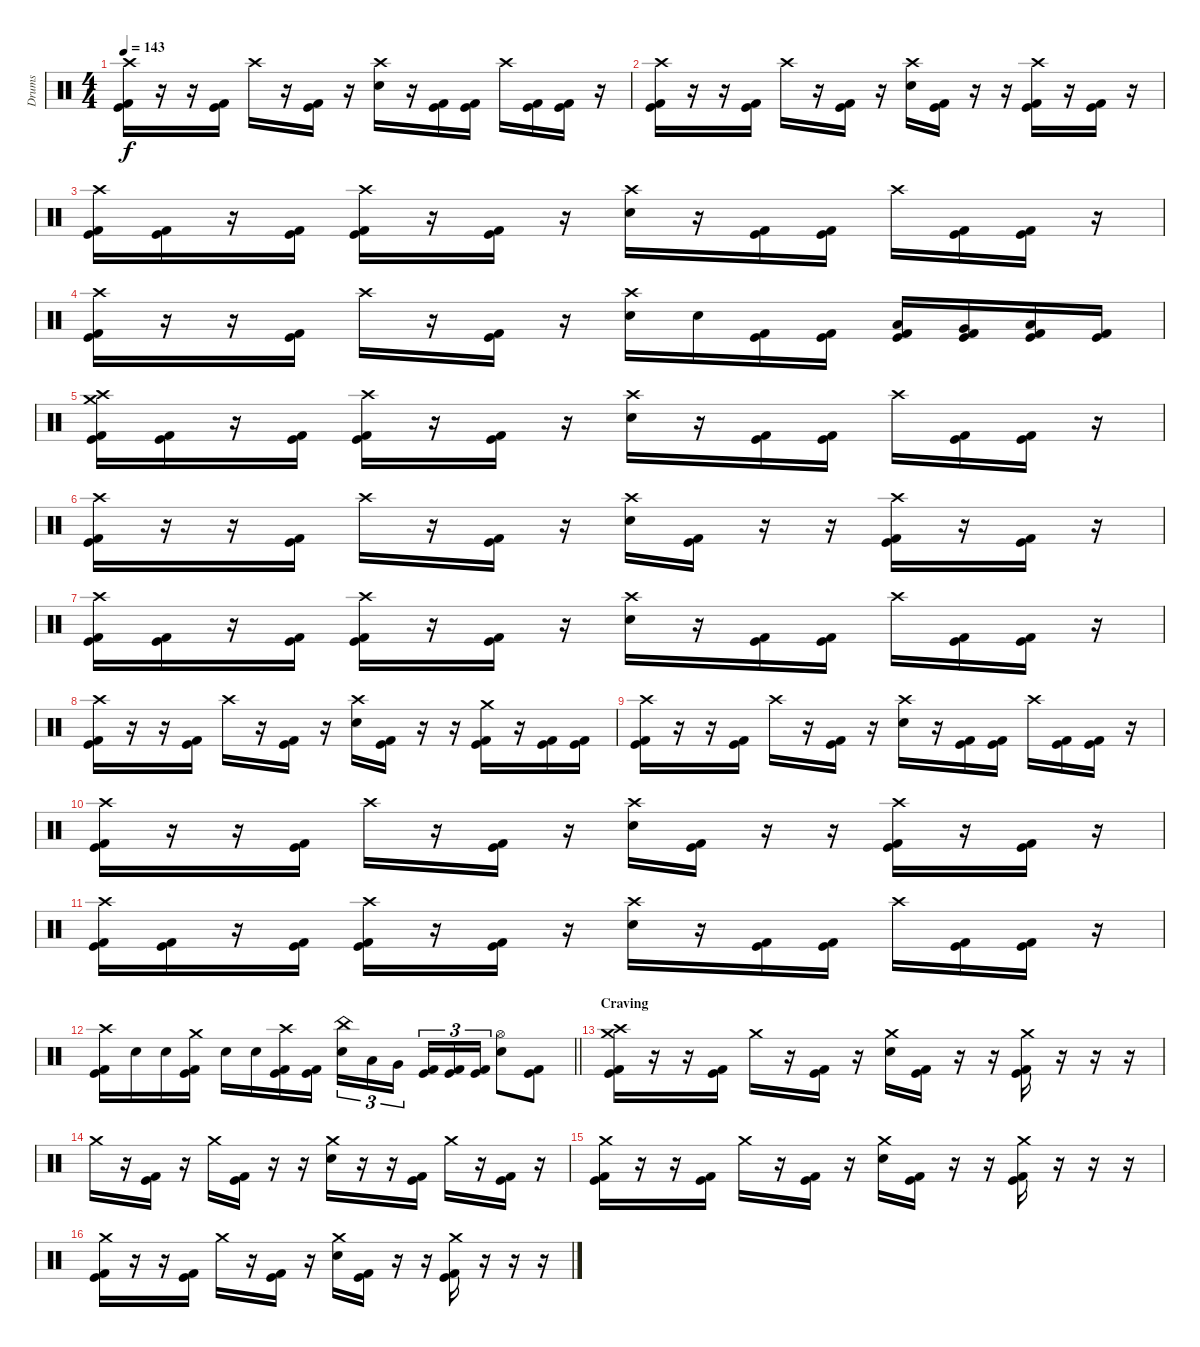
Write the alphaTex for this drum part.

\track ("Drums" "Drums") {instrument percussion}
\staff {score}
\articulation defaults
\ts (4 4)
\tempo 143
\clef neutral
\ks c
("Crash high (hit)" "Kick (hit)" "Kick (hit) 2").16{dy f} r.16 r.16 ("Kick (hit)" "Kick (hit) 2").16 "Crash high (hit)".16 r.16 ("Kick (hit)" "Kick (hit) 2").16 r.16 ("Crash high (hit)" "Electric Snare (hit)").16 r.16 ("Kick (hit)" "Kick (hit) 2").16 ("Kick (hit)" "Kick (hit) 2").16 "Crash high (hit)".16 ("Kick (hit)" "Kick (hit) 2").16 ("Kick (hit)" "Kick (hit) 2").16 r.16 |
("Crash high (hit)" "Kick (hit)" "Kick (hit) 2").16 r.16 r.16 ("Kick (hit)" "Kick (hit) 2").16 "Crash high (hit)".16 r.16 ("Kick (hit)" "Kick (hit) 2").16 r.16 ("Crash high (hit)" "Electric Snare (hit)").16 ("Kick (hit)" "Kick (hit) 2").16 r.16 r.16 ("Crash high (hit)" "Kick (hit)" "Kick (hit) 2").16 r.16 ("Kick (hit)" "Kick (hit) 2").16 r.16 |
("Crash high (hit)" "Kick (hit)" "Kick (hit) 2").16 ("Kick (hit)" "Kick (hit) 2").16 r.16 ("Kick (hit)" "Kick (hit) 2").16 ("Crash high (hit)" "Kick (hit)" "Kick (hit) 2").16 r.16 ("Kick (hit)" "Kick (hit) 2").16 r.16 ("Crash high (hit)" "Electric Snare (hit)").16 r.16 ("Kick (hit)" "Kick (hit) 2").16 ("Kick (hit)" "Kick (hit) 2").16 "Crash high (hit)".16 ("Kick (hit)" "Kick (hit) 2").16 ("Kick (hit)" "Kick (hit) 2").16 r.16 |
("Crash high (hit)" "Kick (hit)" "Kick (hit) 2").16 r.16 r.16 ("Kick (hit)" "Kick (hit) 2").16 "Crash high (hit)".16 r.16 ("Kick (hit)" "Kick (hit) 2").16 r.16 ("Crash high (hit)" "Electric Snare (hit)").16 "Electric Snare (hit)".16 ("Kick (hit)" "Kick (hit) 2").16 ("Kick (hit)" "Kick (hit) 2").16 ("Low Tom (hit)" "Kick (hit)" "Kick (hit) 2").16 ("Very Low Tom (hit)" "Kick (hit)" "Kick (hit) 2").16 ("Low Floor Tom (hit)" "Kick (hit)" "Kick (hit) 2").16 ("Kick (hit)" "Kick (hit) 2").16 |
("Crash medium (hit)" "Crash high (hit)" "Kick (hit)" "Kick (hit) 2").16 ("Kick (hit)" "Kick (hit) 2").16 r.16 ("Kick (hit)" "Kick (hit) 2").16 ("Crash high (hit)" "Kick (hit)" "Kick (hit) 2").16 r.16 ("Kick (hit)" "Kick (hit) 2").16 r.16 ("Crash high (hit)" "Electric Snare (hit)").16 r.16 ("Kick (hit)" "Kick (hit) 2").16 ("Kick (hit)" "Kick (hit) 2").16 "Crash high (hit)".16 ("Kick (hit)" "Kick (hit) 2").16 ("Kick (hit)" "Kick (hit) 2").16 r.16 |
("Crash high (hit)" "Kick (hit)" "Kick (hit) 2").16 r.16 r.16 ("Kick (hit)" "Kick (hit) 2").16 "Crash high (hit)".16 r.16 ("Kick (hit)" "Kick (hit) 2").16 r.16 ("Crash high (hit)" "Electric Snare (hit)").16 ("Kick (hit)" "Kick (hit) 2").16 r.16 r.16 ("Crash high (hit)" "Kick (hit)" "Kick (hit) 2").16 r.16 ("Kick (hit)" "Kick (hit) 2").16 r.16 |
("Crash high (hit)" "Kick (hit)" "Kick (hit) 2").16 ("Kick (hit)" "Kick (hit) 2").16 r.16 ("Kick (hit)" "Kick (hit) 2").16 ("Crash high (hit)" "Kick (hit)" "Kick (hit) 2").16 r.16 ("Kick (hit)" "Kick (hit) 2").16 r.16 ("Crash high (hit)" "Electric Snare (hit)").16 r.16 ("Kick (hit)" "Kick (hit) 2").16 ("Kick (hit)" "Kick (hit) 2").16 "Crash high (hit)".16 ("Kick (hit)" "Kick (hit) 2").16 ("Kick (hit)" "Kick (hit) 2").16 r.16 |
("Crash high (hit)" "Kick (hit)" "Kick (hit) 2").16 r.16 r.16 ("Kick (hit)" "Kick (hit) 2").16 "Crash high (hit)".16 r.16 ("Kick (hit)" "Kick (hit) 2").16 r.16 ("Crash high (hit)" "Electric Snare (hit)").16 ("Kick (hit)" "Kick (hit) 2").16 r.16 r.16 ("Crash medium (hit)" "Kick (hit)" "Kick (hit) 2").16 r.16 ("Kick (hit)" "Kick (hit) 2").16 ("Kick (hit)" "Kick (hit) 2").16 |
("Crash high (hit)" "Kick (hit)" "Kick (hit) 2").16 r.16 r.16 ("Kick (hit)" "Kick (hit) 2").16 "Crash high (hit)".16 r.16 ("Kick (hit)" "Kick (hit) 2").16 r.16 ("Crash high (hit)" "Electric Snare (hit)").16 r.16 ("Kick (hit)" "Kick (hit) 2").16 ("Kick (hit)" "Kick (hit) 2").16 "Crash high (hit)".16 ("Kick (hit)" "Kick (hit) 2").16 ("Kick (hit)" "Kick (hit) 2").16 r.16 |
("Crash high (hit)" "Kick (hit)" "Kick (hit) 2").16 r.16 r.16 ("Kick (hit)" "Kick (hit) 2").16 "Crash high (hit)".16 r.16 ("Kick (hit)" "Kick (hit) 2").16 r.16 ("Crash high (hit)" "Electric Snare (hit)").16 ("Kick (hit)" "Kick (hit) 2").16 r.16 r.16 ("Crash high (hit)" "Kick (hit)" "Kick (hit) 2").16 r.16 ("Kick (hit)" "Kick (hit) 2").16 r.16 |
("Crash high (hit)" "Kick (hit)" "Kick (hit) 2").16 ("Kick (hit)" "Kick (hit) 2").16 r.16 ("Kick (hit)" "Kick (hit) 2").16 ("Crash high (hit)" "Kick (hit)" "Kick (hit) 2").16 r.16 ("Kick (hit)" "Kick (hit) 2").16 r.16 ("Crash high (hit)" "Electric Snare (hit)").16 r.16 ("Kick (hit)" "Kick (hit) 2").16 ("Kick (hit)" "Kick (hit) 2").16 "Crash high (hit)".16 ("Kick (hit)" "Kick (hit) 2").16 ("Kick (hit)" "Kick (hit) 2").16 r.16 |
\barLineRight lightlight
("Crash high (hit)" "Kick (hit)" "Kick (hit) 2").16 "Electric Snare (hit)".16 "Electric Snare (hit)".16 ("Crash medium (hit)" "Kick (hit)" "Kick (hit) 2").16 "Electric Snare (hit)".16 "Electric Snare (hit)".16 ("Crash high (hit)" "Kick (hit)" "Kick (hit) 2").16 ("Kick (hit)" "Kick (hit) 2").16 ("China (hit)" "Electric Snare (hit)").16{tu (3 2)} "Low Tom (hit)".16{tu (3 2)} "Very Low Tom (hit)".16{tu (3 2) beam splitsecondary} ("Kick (hit)" "Kick (hit) 2").16{tu (3 2)} ("Kick (hit)" "Kick (hit) 2").16{tu (3 2)} ("Kick (hit)" "Kick (hit) 2").16{tu (3 2)} ("Hi-Hat (open)" "Electric Snare (hit)").8 ("Kick (hit)" "Kick (hit) 2").8 |
\section ("" "Craving")
("Crash medium (hit)" "Crash high (hit)" "Kick (hit)" "Kick (hit) 2").16 r.16 r.16 ("Kick (hit)" "Kick (hit) 2").16 "Crash medium (hit)".16 r.16 ("Kick (hit)" "Kick (hit) 2").16 r.16 ("Crash medium (hit)" "Electric Snare (hit)").16 ("Kick (hit)" "Kick (hit) 2").16 r.16 r.16 ("Crash medium (hit)" "Kick (hit)" "Kick (hit) 2").16 r.16 r.16 r.16 |
"Crash medium (hit)".16 r.16 ("Kick (hit)" "Kick (hit) 2").16 r.16 "Crash medium (hit)".16 ("Kick (hit)" "Kick (hit) 2").16 r.16 r.16 ("Crash medium (hit)" "Electric Snare (hit)").16 r.16 r.16 ("Kick (hit)" "Kick (hit) 2").16 "Crash medium (hit)".16 r.16 ("Kick (hit)" "Kick (hit) 2").16 r.16 |
("Crash medium (hit)" "Kick (hit)" "Kick (hit) 2").16 r.16 r.16 ("Kick (hit)" "Kick (hit) 2").16 "Crash medium (hit)".16 r.16 ("Kick (hit)" "Kick (hit) 2").16 r.16 ("Crash medium (hit)" "Electric Snare (hit)").16 ("Kick (hit)" "Kick (hit) 2").16 r.16 r.16 ("Crash medium (hit)" "Kick (hit)" "Kick (hit) 2").16 r.16 r.16 r.16 |
("Crash medium (hit)" "Kick (hit)" "Kick (hit) 2").16 r.16 r.16 ("Kick (hit)" "Kick (hit) 2").16 "Crash medium (hit)".16 r.16 ("Kick (hit)" "Kick (hit) 2").16 r.16 ("Crash medium (hit)" "Electric Snare (hit)").16 ("Kick (hit)" "Kick (hit) 2").16 r.16 r.16 ("Crash medium (hit)" "Kick (hit)" "Kick (hit) 2").16 r.16 r.16 r.16
